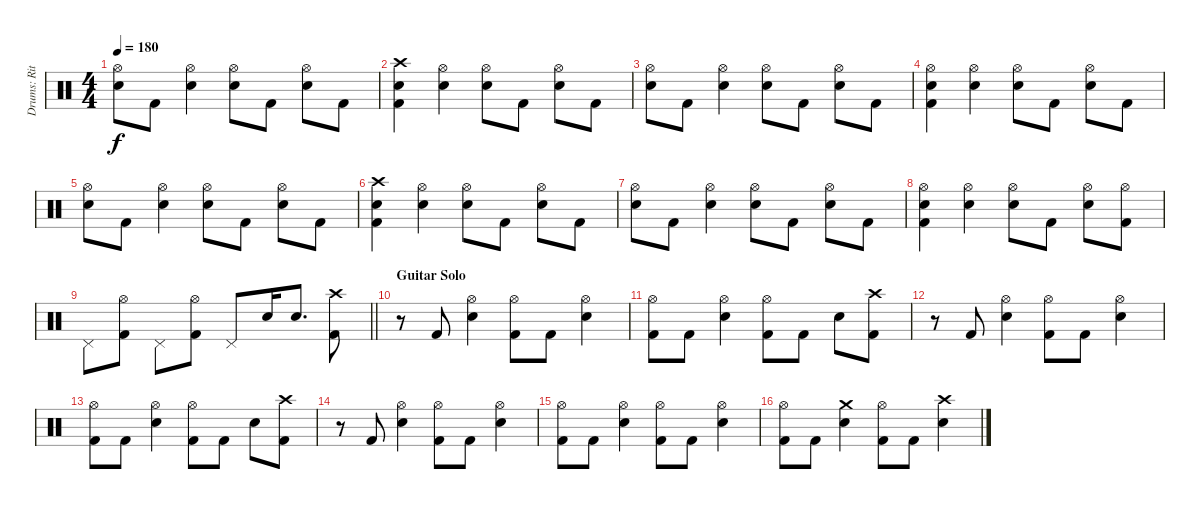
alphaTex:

\track ("Drums: Ritsu Tainaka" "Drums: Rit") {instrument percussion}
\staff {score}
\articulation defaults
\ts (4 4)
\tempo 180
\clef neutral
\ks c
("Hi-Hat (open)" "Electric Snare (hit)").8{dy f} "Kick (hit) 2".8 ("Hi-Hat (open)" "Electric Snare (hit)").4 ("Hi-Hat (open)" "Electric Snare (hit)").8 "Kick (hit) 2".8 ("Hi-Hat (open)" "Electric Snare (hit)").8 "Kick (hit) 2".8 |
("Crash high (hit)" "Electric Snare (hit)" "Kick (hit) 2").4 ("Hi-Hat (open)" "Electric Snare (hit)").4 ("Hi-Hat (open)" "Electric Snare (hit)").8 "Kick (hit) 2".8 ("Hi-Hat (open)" "Electric Snare (hit)").8 "Kick (hit) 2".8 |
("Hi-Hat (open)" "Electric Snare (hit)").8 "Kick (hit) 2".8 ("Hi-Hat (open)" "Electric Snare (hit)").4 ("Hi-Hat (open)" "Electric Snare (hit)").8 "Kick (hit) 2".8 ("Hi-Hat (open)" "Electric Snare (hit)").8 "Kick (hit) 2".8 |
("Hi-Hat (open)" "Electric Snare (hit)" "Kick (hit) 2").4 ("Hi-Hat (open)" "Electric Snare (hit)").4 ("Hi-Hat (open)" "Electric Snare (hit)").8 "Kick (hit) 2".8 ("Hi-Hat (open)" "Electric Snare (hit)").8 "Kick (hit) 2".8 |
("Hi-Hat (open)" "Electric Snare (hit)").8 "Kick (hit) 2".8 ("Hi-Hat (open)" "Electric Snare (hit)").4 ("Hi-Hat (open)" "Electric Snare (hit)").8 "Kick (hit) 2".8 ("Hi-Hat (open)" "Electric Snare (hit)").8 "Kick (hit) 2".8 |
("Crash high (hit)" "Electric Snare (hit)" "Kick (hit) 2").4 ("Hi-Hat (open)" "Electric Snare (hit)").4 ("Hi-Hat (open)" "Electric Snare (hit)").8 "Kick (hit) 2".8 ("Hi-Hat (open)" "Electric Snare (hit)").8 "Kick (hit) 2".8 |
("Hi-Hat (open)" "Electric Snare (hit)").8 "Kick (hit) 2".8 ("Hi-Hat (open)" "Electric Snare (hit)").4 ("Hi-Hat (open)" "Electric Snare (hit)").8 "Kick (hit) 2".8 ("Hi-Hat (open)" "Electric Snare (hit)").8 "Kick (hit) 2".8 |
("Hi-Hat (open)" "Electric Snare (hit)" "Kick (hit) 2").4 ("Hi-Hat (open)" "Electric Snare (hit)").4 ("Hi-Hat (open)" "Electric Snare (hit)").8 "Kick (hit) 2".8 ("Hi-Hat (open)" "Electric Snare (hit)").8 ("Hi-Hat (open)" "Kick (hit) 2").8 |
\barLineRight lightlight "Pedal Hi-Hat (hit)".8
("Hi-Hat (open)" "Kick (hit) 2").8 "Pedal Hi-Hat (hit)".8 ("Hi-Hat (open)" "Kick (hit) 2").8 "Pedal Hi-Hat (hit)".8 "Electric Snare (hit)".16 "Electric Snare (hit)".8{d} ("Crash high (hit)" "Kick (hit) 2").8 |
\section ("" "Guitar Solo")
r.8 "Kick (hit) 2".8 ("Hi-Hat (open)" "Electric Snare (hit)").4 ("Hi-Hat (open)" "Kick (hit) 2").8 "Kick (hit) 2".8 ("Hi-Hat (open)" "Electric Snare (hit)").4 |
("Hi-Hat (open)" "Kick (hit) 2").8 "Kick (hit) 2".8 ("Hi-Hat (open)" "Electric Snare (hit)").4 ("Hi-Hat (open)" "Kick (hit) 2").8 "Kick (hit) 2".8 "Electric Snare (hit)".8 ("Crash high (hit)" "Kick (hit) 2").8 |
r.8 "Kick (hit) 2".8 ("Hi-Hat (open)" "Electric Snare (hit)").4 ("Hi-Hat (open)" "Kick (hit) 2").8 "Kick (hit) 2".8 ("Hi-Hat (open)" "Electric Snare (hit)").4 |
("Hi-Hat (open)" "Kick (hit) 2").8 "Kick (hit) 2".8 ("Hi-Hat (open)" "Electric Snare (hit)").4 ("Hi-Hat (open)" "Kick (hit) 2").8 "Kick (hit) 2".8 "Electric Snare (hit)".8 ("Crash high (hit)" "Kick (hit) 2").8 |
r.8 "Kick (hit) 2".8 ("Hi-Hat (open)" "Electric Snare (hit)").4 ("Hi-Hat (open)" "Kick (hit) 2").8 "Kick (hit) 2".8 ("Hi-Hat (open)" "Electric Snare (hit)").4 |
("Hi-Hat (open)" "Kick (hit) 2").8 "Kick (hit) 2".8 ("Hi-Hat (open)" "Electric Snare (hit)").4 ("Hi-Hat (open)" "Kick (hit) 2").8 "Kick (hit) 2".8 ("Hi-Hat (open)" "Electric Snare (hit)").4 |
("Hi-Hat (open)" "Kick (hit) 2").8 "Kick (hit) 2".8 ("Crash medium (hit)" "Electric Snare (hit)").4 ("Hi-Hat (open)" "Kick (hit) 2").8 "Kick (hit) 2".8 ("Crash high (hit)" "Electric Snare (hit)").4
